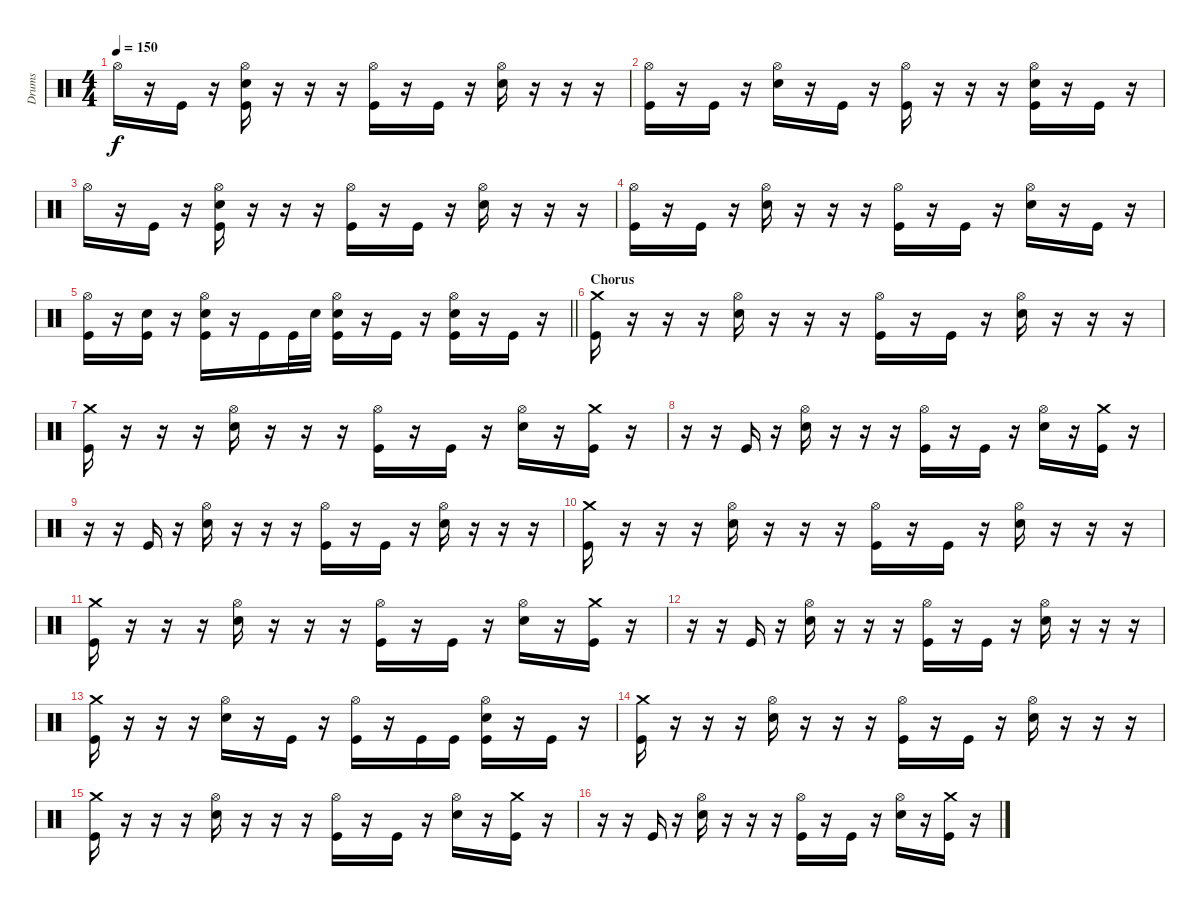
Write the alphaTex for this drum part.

\track ("Drums" "Drums") {instrument percussion}
\staff {score}
\articulation defaults
\ts (4 4)
\tempo 150
\clef neutral
\ks c "Hi-Hat (open)".16{dy f}
r.16 "Kick (hit)".16 r.16 ("Hi-Hat (open)" "Snare (hit) 2" "Kick (hit)").16 r.16 r.16 r.16 ("Hi-Hat (open)" "Kick (hit)").16 r.16 "Kick (hit)".16 r.16 ("Hi-Hat (open)" "Snare (hit) 2").16 r.16 r.16 r.16 |
("Hi-Hat (open)" "Kick (hit)").16 r.16 "Kick (hit)".16 r.16 ("Hi-Hat (open)" "Snare (hit) 2").16 r.16 "Kick (hit)".16 r.16 ("Hi-Hat (open)" "Kick (hit)").16 r.16 r.16 r.16 ("Hi-Hat (open)" "Snare (hit) 2" "Kick (hit)").16 r.16 "Kick (hit)".16 r.16 |
"Hi-Hat (open)".16 r.16 "Kick (hit)".16 r.16 ("Hi-Hat (open)" "Snare (hit) 2" "Kick (hit)").16 r.16 r.16 r.16 ("Hi-Hat (open)" "Kick (hit)").16 r.16 "Kick (hit)".16 r.16 ("Hi-Hat (open)" "Snare (hit) 2").16 r.16 r.16 r.16 |
("Hi-Hat (open)" "Kick (hit)").16 r.16 "Kick (hit)".16 r.16 ("Hi-Hat (open)" "Snare (hit) 2").16 r.16 r.16 r.16 ("Hi-Hat (open)" "Kick (hit)").16 r.16 "Kick (hit)".16 r.16 ("Hi-Hat (open)" "Snare (hit) 2").16 r.16 "Kick (hit)".16 r.16 |
\barLineRight lightlight
("Hi-Hat (open)" "Kick (hit)").16 r.16 ("Snare (hit) 2" "Kick (hit)").16 r.16 ("Hi-Hat (open)" "Snare (hit) 2" "Kick (hit)").16 r.16 "Kick (hit)".16 "Kick (hit)".32 "Snare (hit) 2".32 ("Hi-Hat (open)" "Snare (hit) 2" "Kick (hit)").16 r.16 "Kick (hit)".16 r.16 ("Hi-Hat (open)" "Snare (hit) 2" "Kick (hit)").16 r.16 "Kick (hit)".16 r.16 |
\section ("" "Chorus")
("Crash medium (hit)" "Kick (hit)").16 r.16 r.16 r.16 ("Hi-Hat (open)" "Snare (hit) 2").16 r.16 r.16 r.16 ("Hi-Hat (open)" "Kick (hit)").16 r.16 "Kick (hit)".16 r.16 ("Hi-Hat (open)" "Snare (hit) 2").16 r.16 r.16 r.16 |
("Crash medium (hit)" "Kick (hit)").16 r.16 r.16 r.16 ("Hi-Hat (open)" "Snare (hit) 2").16 r.16 r.16 r.16 ("Hi-Hat (open)" "Kick (hit)").16 r.16 "Kick (hit)".16 r.16 ("Hi-Hat (open)" "Snare (hit) 2").16 r.16 ("Crash medium (hit)" "Kick (hit)").16 r.16 |
r.16 r.16 "Kick (hit)".16 r.16 ("Hi-Hat (open)" "Snare (hit) 2").16 r.16 r.16 r.16 ("Hi-Hat (open)" "Kick (hit)").16 r.16 "Kick (hit)".16 r.16 ("Hi-Hat (open)" "Snare (hit) 2").16 r.16 ("Crash medium (hit)" "Kick (hit)").16 r.16 |
r.16 r.16 "Kick (hit)".16 r.16 ("Hi-Hat (open)" "Snare (hit) 2").16 r.16 r.16 r.16 ("Hi-Hat (open)" "Kick (hit)").16 r.16 "Kick (hit)".16 r.16 ("Hi-Hat (open)" "Snare (hit) 2").16 r.16 r.16 r.16 |
("Crash medium (hit)" "Kick (hit)").16 r.16 r.16 r.16 ("Hi-Hat (open)" "Snare (hit) 2").16 r.16 r.16 r.16 ("Hi-Hat (open)" "Kick (hit)").16 r.16 "Kick (hit)".16 r.16 ("Hi-Hat (open)" "Snare (hit) 2").16 r.16 r.16 r.16 |
("Crash medium (hit)" "Kick (hit)").16 r.16 r.16 r.16 ("Hi-Hat (open)" "Snare (hit) 2").16 r.16 r.16 r.16 ("Hi-Hat (open)" "Kick (hit)").16 r.16 "Kick (hit)".16 r.16 ("Hi-Hat (open)" "Snare (hit) 2").16 r.16 ("Crash medium (hit)" "Kick (hit)").16 r.16 |
r.16 r.16 "Kick (hit)".16 r.16 ("Hi-Hat (open)" "Snare (hit) 2").16 r.16 r.16 r.16 ("Hi-Hat (open)" "Kick (hit)").16 r.16 "Kick (hit)".16 r.16 ("Hi-Hat (open)" "Snare (hit) 2").16 r.16 r.16 r.16 |
("Crash medium (hit)" "Kick (hit)").16 r.16 r.16 r.16 ("Hi-Hat (open)" "Snare (hit) 2").16 r.16 "Kick (hit)".16 r.16 ("Hi-Hat (open)" "Kick (hit)").16 r.16 "Kick (hit)".16 "Kick (hit)".16 ("Hi-Hat (open)" "Snare (hit) 2" "Kick (hit)").16 r.16 "Kick (hit)".16 r.16 |
("Crash medium (hit)" "Kick (hit)").16 r.16 r.16 r.16 ("Hi-Hat (open)" "Snare (hit) 2").16 r.16 r.16 r.16 ("Hi-Hat (open)" "Kick (hit)").16 r.16 "Kick (hit)".16 r.16 ("Hi-Hat (open)" "Snare (hit) 2").16 r.16 r.16 r.16 |
("Crash medium (hit)" "Kick (hit)").16 r.16 r.16 r.16 ("Hi-Hat (open)" "Snare (hit) 2").16 r.16 r.16 r.16 ("Hi-Hat (open)" "Kick (hit)").16 r.16 "Kick (hit)".16 r.16 ("Hi-Hat (open)" "Snare (hit) 2").16 r.16 ("Crash medium (hit)" "Kick (hit)").16 r.16 |
r.16 r.16 "Kick (hit)".16 r.16 ("Hi-Hat (open)" "Snare (hit) 2").16 r.16 r.16 r.16 ("Hi-Hat (open)" "Kick (hit)").16 r.16 "Kick (hit)".16 r.16 ("Hi-Hat (open)" "Snare (hit) 2").16 r.16 ("Crash medium (hit)" "Kick (hit)").16 r.16
